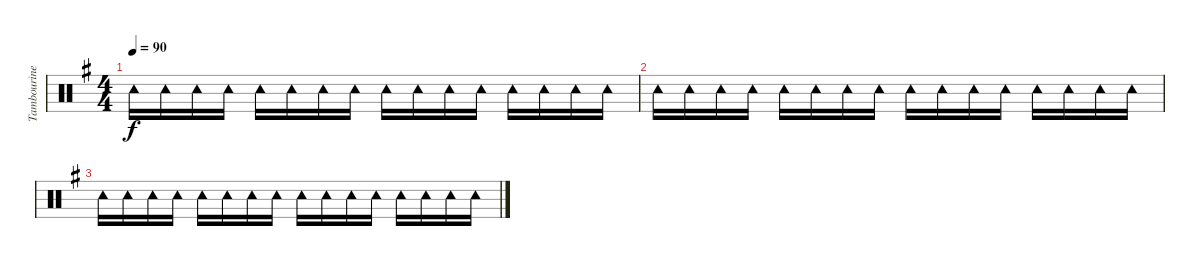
\track ("Tambourine" "Tambourine") {instrument percussion}
\staff {score}
\articulation defaults
\ts (4 4)
\tempo 90
\clef neutral
\ks g "Tambourine (hit)".16{dy f} "Tambourine (hit)".16 "Tambourine (hit)".16 "Tambourine (hit)".16 "Tambourine (hit)".16 "Tambourine (hit)".16 "Tambourine (hit)".16 "Tambourine (hit)".16 "Tambourine (hit)".16 "Tambourine (hit)".16 "Tambourine (hit)".16 "Tambourine (hit)".16 "Tambourine (hit)".16 "Tambourine (hit)".16 "Tambourine (hit)".16 "Tambourine (hit)".16
|
"Tambourine (hit)".16 "Tambourine (hit)".16 "Tambourine (hit)".16 "Tambourine (hit)".16 "Tambourine (hit)".16 "Tambourine (hit)".16 "Tambourine (hit)".16 "Tambourine (hit)".16 "Tambourine (hit)".16 "Tambourine (hit)".16 "Tambourine (hit)".16 "Tambourine (hit)".16 "Tambourine (hit)".16 "Tambourine (hit)".16 "Tambourine (hit)".16 "Tambourine (hit)".16 |
"Tambourine (hit)".16 "Tambourine (hit)".16 "Tambourine (hit)".16 "Tambourine (hit)".16 "Tambourine (hit)".16 "Tambourine (hit)".16 "Tambourine (hit)".16 "Tambourine (hit)".16 "Tambourine (hit)".16 "Tambourine (hit)".16 "Tambourine (hit)".16 "Tambourine (hit)".16 "Tambourine (hit)".16 "Tambourine (hit)".16 "Tambourine (hit)".16 "Tambourine (hit)".16
